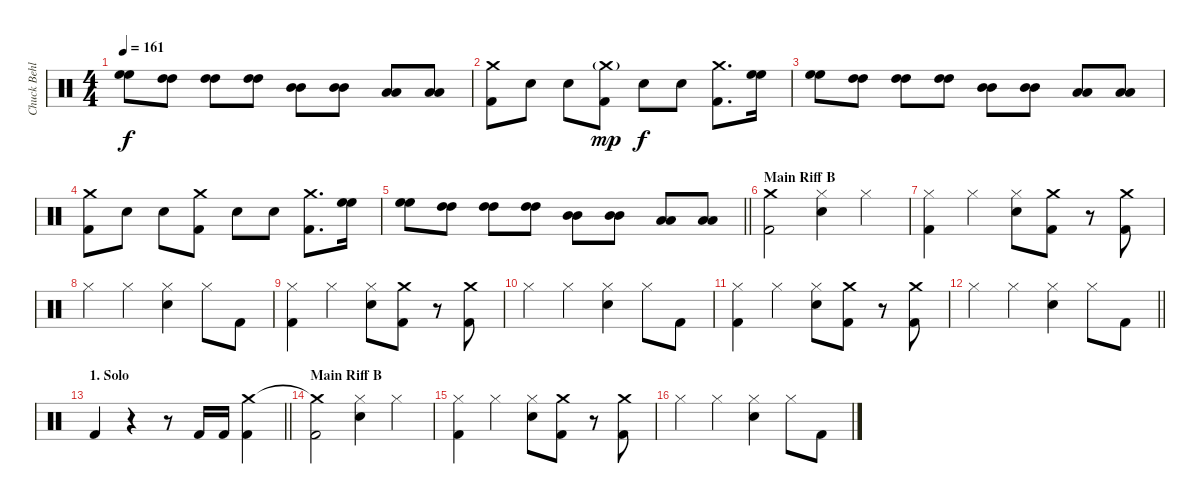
\track ("Chuck Behler" "Chuck Behl") {instrument percussion}
\staff {score}
\articulation defaults
\ts (4 4)
\tempo 161
\clef neutral
\ks c
("High Floor Tom (hit)" "High Floor Tom (hit)").8{dy f} ("High Tom (hit)" "High Tom (hit)").8 ("High Tom (hit)" "High Tom (hit)").8 ("High Tom (hit)" "High Tom (hit)").8 ("Mid Tom (hit)" "Mid Tom (hit)").8 ("Mid Tom (hit)" "Mid Tom (hit)").8 ("Low Tom (hit)" "Low Tom (hit)").8 ("Low Tom (hit)" "Low Tom (hit)").8 |
("Crash medium (hit)" "Kick (hit) 2").8 "Snare (hit) 2".8 "Snare (hit) 2".8 ("Crash medium (hit)"{g} "Kick (hit) 2").8{dy mp} "Snare (hit) 2".8{dy f} "Snare (hit) 2".8 ("Crash medium (hit)" "Kick (hit) 2").8{d} ("High Floor Tom (hit)" "High Floor Tom (hit)").16 |
("High Floor Tom (hit)" "High Floor Tom (hit)").8 ("High Tom (hit)" "High Tom (hit)").8 ("High Tom (hit)" "High Tom (hit)").8 ("High Tom (hit)" "High Tom (hit)").8 ("Mid Tom (hit)" "Mid Tom (hit)").8 ("Mid Tom (hit)" "Mid Tom (hit)").8 ("Low Tom (hit)" "Low Tom (hit)").8 ("Low Tom (hit)" "Low Tom (hit)").8 |
("Crash medium (hit)" "Kick (hit) 2").8 "Snare (hit) 2".8 "Snare (hit) 2".8 ("Crash medium (hit)" "Kick (hit) 2").8 "Snare (hit) 2".8 "Snare (hit) 2".8 ("Crash medium (hit)" "Kick (hit) 2").8{d} ("High Floor Tom (hit)" "High Floor Tom (hit)").16 |
\barLineRight lightlight
("High Floor Tom (hit)" "High Floor Tom (hit)").8 ("High Tom (hit)" "High Tom (hit)").8 ("High Tom (hit)" "High Tom (hit)").8 ("High Tom (hit)" "High Tom (hit)").8 ("Mid Tom (hit)" "Mid Tom (hit)").8 ("Mid Tom (hit)" "Mid Tom (hit)").8 ("Low Tom (hit)" "Low Tom (hit)").8 ("Low Tom (hit)" "Low Tom (hit)").8 |
\section ("" "Main Riff B")
("Crash medium (hit)" "Kick (hit) 2").2 ("Hi-Hat (closed)" "Snare (hit) 2").4 "Hi-Hat (closed)".4 |
("Hi-Hat (closed)" "Kick (hit) 2").4 "Hi-Hat (closed)".4 ("Hi-Hat (closed)" "Snare (hit) 2").8 ("Crash medium (hit)" "Kick (hit) 2").8 r.8 ("Crash medium (hit)" "Kick (hit) 2").8 |
"Hi-Hat (closed)".4 "Hi-Hat (closed)".4 ("Hi-Hat (closed)" "Snare (hit) 2").4 "Hi-Hat (closed)".8 "Kick (hit) 2".8 |
("Hi-Hat (closed)" "Kick (hit) 2").4 "Hi-Hat (closed)".4 ("Hi-Hat (closed)" "Snare (hit) 2").8 ("Crash medium (hit)" "Kick (hit) 2").8 r.8 ("Crash medium (hit)" "Kick (hit) 2").8 |
"Hi-Hat (closed)".4 "Hi-Hat (closed)".4 ("Hi-Hat (closed)" "Snare (hit) 2").4 "Hi-Hat (closed)".8 "Kick (hit) 2".8 |
("Hi-Hat (closed)" "Kick (hit) 2").4 "Hi-Hat (closed)".4 ("Hi-Hat (closed)" "Snare (hit) 2").8 ("Crash medium (hit)" "Kick (hit) 2").8 r.8 ("Crash medium (hit)" "Kick (hit) 2").8 |
\barLineRight lightlight "Hi-Hat (closed)".4 "Hi-Hat (closed)".4
("Hi-Hat (closed)" "Snare (hit) 2").4 "Hi-Hat (closed)".8 "Kick (hit) 2".8 |
\section ("" "1. Solo")
\barLineRight lightlight "Kick (hit) 2".4
r.4 r.8 "Kick (hit) 2".16 "Kick (hit) 2".16 ("Crash medium (hit)" "Kick (hit) 2").4 |
\section ("" "Main Riff B")
("Crash medium (hit)"{t} "Kick (hit) 2").2 ("Hi-Hat (closed)" "Snare (hit) 2").4 "Hi-Hat (closed)".4 |
("Hi-Hat (closed)" "Kick (hit) 2").4 "Hi-Hat (closed)".4 ("Hi-Hat (closed)" "Snare (hit) 2").8 ("Crash medium (hit)" "Kick (hit) 2").8 r.8 ("Crash medium (hit)" "Kick (hit) 2").8 |
"Hi-Hat (closed)".4 "Hi-Hat (closed)".4 ("Hi-Hat (closed)" "Snare (hit) 2").4 "Hi-Hat (closed)".8 "Kick (hit) 2".8
